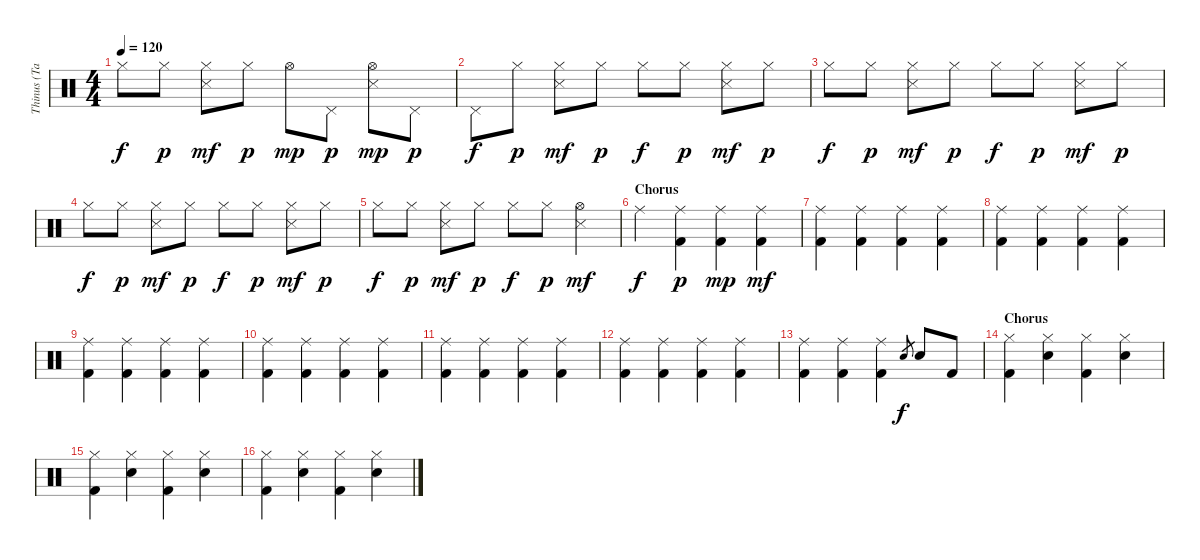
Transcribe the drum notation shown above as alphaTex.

\track ("Thinus (Tain) Odendaal - Drums" "Thinus (Ta") {instrument percussion}
\staff {score}
\articulation defaults
\ts (4 4)
\tempo 120
\clef neutral
\ks c "Hi-Hat (closed)".8{dy f} "Hi-Hat (closed)".8{dy p}
("Hi-Hat (closed)" "Snare (side stick) 3").8{dy mf} "Hi-Hat (closed)".8{dy p} "Hi-Hat (open)".8{dy mp} "Pedal Hi-Hat (hit)".8{dy p} ("Hi-Hat (open)" "Snare (side stick) 3").8{dy mp} "Pedal Hi-Hat (hit)".8{dy p} |
"Pedal Hi-Hat (hit)".8{dy f} "Hi-Hat (closed)".8{dy p} ("Hi-Hat (closed)" "Snare (side stick) 3").8{dy mf} "Hi-Hat (closed)".8{dy p} "Hi-Hat (closed)".8{dy f} "Hi-Hat (closed)".8{dy p} ("Hi-Hat (closed)" "Snare (side stick) 3").8{dy mf} "Hi-Hat (closed)".8{dy p} |
"Hi-Hat (closed)".8{dy f} "Hi-Hat (closed)".8{dy p} ("Hi-Hat (closed)" "Snare (side stick) 3").8{dy mf} "Hi-Hat (closed)".8{dy p} "Hi-Hat (closed)".8{dy f} "Hi-Hat (closed)".8{dy p} ("Hi-Hat (closed)" "Snare (side stick) 3").8{dy mf} "Hi-Hat (closed)".8{dy p} |
"Hi-Hat (closed)".8{dy f} "Hi-Hat (closed)".8{dy p} ("Hi-Hat (closed)" "Snare (side stick) 3").8{dy mf} "Hi-Hat (closed)".8{dy p} "Hi-Hat (closed)".8{dy f} "Hi-Hat (closed)".8{dy p} ("Hi-Hat (closed)" "Snare (side stick) 3").8{dy mf} "Hi-Hat (closed)".8{dy p} |
"Hi-Hat (closed)".8{dy f} "Hi-Hat (closed)".8{dy p} ("Hi-Hat (closed)" "Snare (side stick) 3").8{dy mf} "Hi-Hat (closed)".8{dy p} "Hi-Hat (closed)".8{dy f} "Hi-Hat (closed)".8{dy p} ("Hi-Hat (open)" "Snare (side stick) 3").4{dy mf} |
\section ("" "Chorus")
"Ride (middle)".4{dy f} ("Ride (middle)" "Kick (hit) 2").4{dy p} ("Ride (middle)" "Kick (hit) 2").4{dy mp} ("Ride (middle)" "Kick (hit) 2").4{dy mf} |
("Ride (middle)" "Kick (hit) 2").4 ("Ride (middle)" "Kick (hit) 2").4 ("Ride (middle)" "Kick (hit) 2").4 ("Ride (middle)" "Kick (hit) 2").4 |
("Ride (middle)" "Kick (hit) 2").4 ("Ride (middle)" "Kick (hit) 2").4 ("Ride (middle)" "Kick (hit) 2").4 ("Ride (middle)" "Kick (hit) 2").4 |
("Ride (middle)" "Kick (hit) 2").4 ("Ride (middle)" "Kick (hit) 2").4 ("Ride (middle)" "Kick (hit) 2").4 ("Ride (middle)" "Kick (hit) 2").4 |
("Ride (middle)" "Kick (hit) 2").4 ("Ride (middle)" "Kick (hit) 2").4 ("Ride (middle)" "Kick (hit) 2").4 ("Ride (middle)" "Kick (hit) 2").4 |
("Ride (middle)" "Kick (hit) 2").4 ("Ride (middle)" "Kick (hit) 2").4 ("Ride (middle)" "Kick (hit) 2").4 ("Ride (middle)" "Kick (hit) 2").4 |
("Ride (middle)" "Kick (hit) 2").4 ("Ride (middle)" "Kick (hit) 2").4 ("Ride (middle)" "Kick (hit) 2").4 ("Ride (middle)" "Kick (hit) 2").4 |
("Ride (middle)" "Kick (hit) 2").4 ("Ride (middle)" "Kick (hit) 2").4 ("Ride (middle)" "Kick (hit) 2").4 "Snare (hit) 2".8{gr dy f} "Snare (hit) 2".8 "Kick (hit) 2".8 |
\section ("" "Chorus")
("Hi-Hat (closed)" "Kick (hit) 2").4 ("Hi-Hat (closed)" "Snare (hit) 2").4 ("Hi-Hat (closed)" "Kick (hit) 2").4 ("Hi-Hat (closed)" "Snare (hit) 2").4 |
("Hi-Hat (closed)" "Kick (hit) 2").4 ("Hi-Hat (closed)" "Snare (hit) 2").4 ("Hi-Hat (closed)" "Kick (hit) 2").4 ("Hi-Hat (closed)" "Snare (hit) 2").4 |
("Hi-Hat (closed)" "Kick (hit) 2").4 ("Hi-Hat (closed)" "Snare (hit) 2").4 ("Hi-Hat (closed)" "Kick (hit) 2").4 ("Hi-Hat (closed)" "Snare (hit) 2").4
